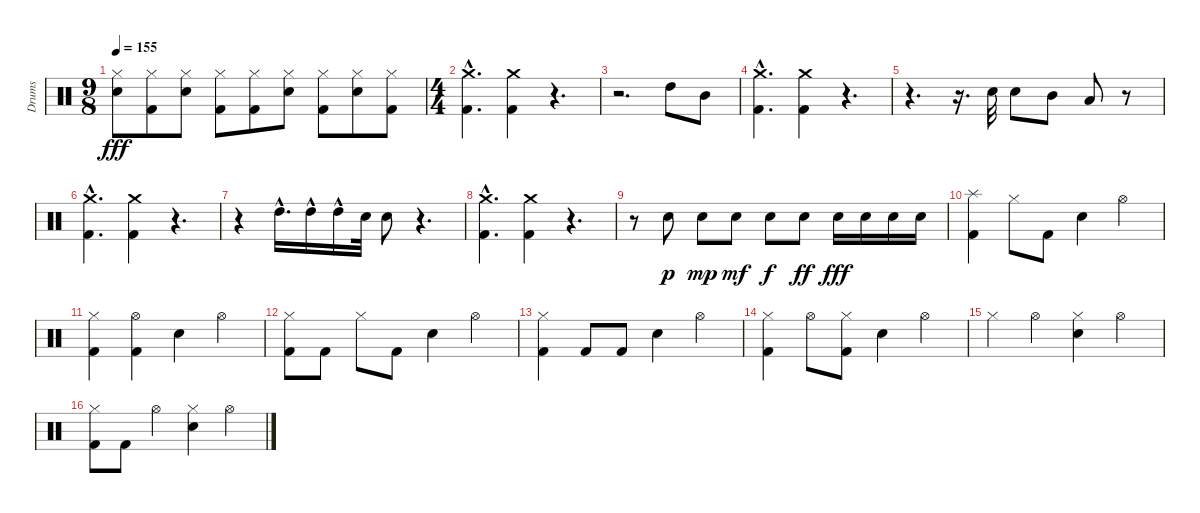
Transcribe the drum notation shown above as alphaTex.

\track ("Drums" "Drums") {instrument percussion}
\staff {score}
\articulation defaults
\ts (9 8)
\tempo 155
\clef neutral
\ks c
("Electric Snare (hit)" "Hi-Hat (closed)").8{dy fff} ("Hi-Hat (closed)" "Kick (hit) 2").8 ("Electric Snare (hit)" "Hi-Hat (closed)").8 ("Hi-Hat (closed)" "Kick (hit) 2").8 ("Hi-Hat (closed)" "Kick (hit) 2").8 ("Electric Snare (hit)" "Hi-Hat (closed)").8 ("Hi-Hat (closed)" "Kick (hit) 2").8 ("Electric Snare (hit)" "Hi-Hat (closed)").8 ("Hi-Hat (closed)" "Kick (hit) 2").8 |
\ts (4 4)
("Crash medium (hit)"{hac} "Kick (hit) 2"{hac}).4{d} ("Crash medium (hit)" "Kick (hit) 2").4 r.4{d} |
r.2{d} "High Tom (hit)".8 "Mid Tom (hit)".8 |
("Crash medium (hit)"{hac} "Kick (hit) 2"{hac}).4{d} ("Crash medium (hit)" "Kick (hit) 2").4 r.4{d} |
r.4{d} r.16{d} "Electric Snare (hit)".32 "Electric Snare (hit)".8 "Mid Tom (hit)".8 "Low Tom (hit)".8 r.8 |
("Crash medium (hit)"{hac} "Kick (hit) 2"{hac}).4{d} ("Crash medium (hit)" "Kick (hit) 2").4 r.4{d} |
r.4 "High Tom (hit)"{hac}.16{d} "High Tom (hit)"{hac}.16 "High Tom (hit)"{hac}.16 "Electric Snare (hit)".32 "Electric Snare (hit)".8 r.4{d} |
("Crash medium (hit)"{hac} "Kick (hit) 2"{hac}).4{d} ("Crash medium (hit)" "Kick (hit) 2").4 r.4{d} |
r.8 "Electric Snare (hit)".8{dy p} "Electric Snare (hit)".8{dy mp} "Electric Snare (hit)".8{dy mf} "Electric Snare (hit)".8{dy f} "Electric Snare (hit)".8{dy ff} "Electric Snare (hit)".16{dy fff} "Electric Snare (hit)".16 "Electric Snare (hit)".16 "Electric Snare (hit)".16 |
("Splash (hit)" "Kick (hit) 2").4 "Hi-Hat (closed)".8 "Kick (hit) 2".8 "Electric Snare (hit)".4 "Hi-Hat (open)".4 |
("Hi-Hat (closed)" "Kick (hit) 2").4 ("Hi-Hat (open)" "Kick (hit) 2").4 "Electric Snare (hit)".4 "Hi-Hat (open)".4 |
("Hi-Hat (closed)" "Kick (hit) 2").8 "Kick (hit) 2".8 "Hi-Hat (closed)".8 "Kick (hit) 2".8 "Electric Snare (hit)".4 "Hi-Hat (open)".4 |
("Hi-Hat (closed)" "Kick (hit) 2").4 "Kick (hit) 2".8 "Kick (hit) 2".8 "Electric Snare (hit)".4 "Hi-Hat (open)".4 |
("Hi-Hat (closed)" "Kick (hit) 2").4 "Hi-Hat (open)".8 ("Hi-Hat (closed)" "Kick (hit) 2").8 "Electric Snare (hit)".4 "Hi-Hat (open)".4 |
"Hi-Hat (closed)".4 "Hi-Hat (open)".4 ("Electric Snare (hit)" "Hi-Hat (closed)").4 "Hi-Hat (open)".4 |
("Hi-Hat (closed)" "Kick (hit) 2").8 "Kick (hit) 2".8 "Hi-Hat (open)".4 ("Electric Snare (hit)" "Hi-Hat (closed)").4 "Hi-Hat (open)".4
